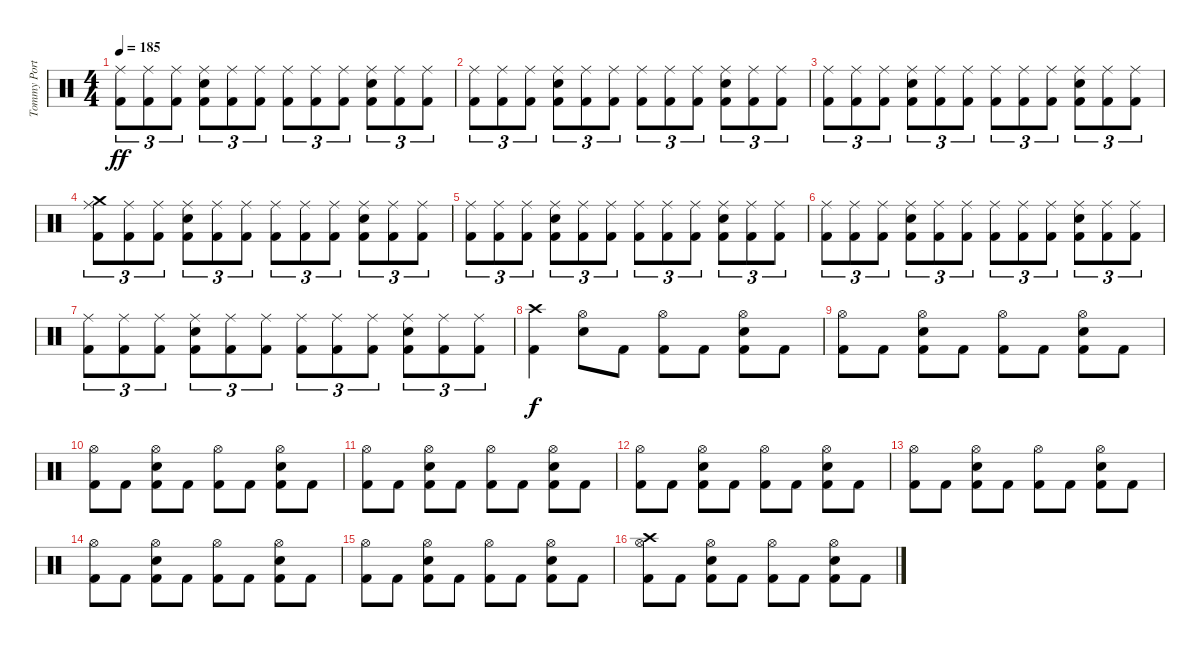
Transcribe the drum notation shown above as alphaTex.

\track ("Tommy Portino" "Tommy Port") {instrument percussion}
\staff {score}
\articulation defaults
\ts (4 4)
\tempo 185
\clef neutral
\ks c
("Ride (middle)" "Kick (hit) 2").8{tu (3 2) dy ff} ("Ride (middle)" "Kick (hit) 2").8{tu (3 2)} ("Ride (middle)" "Kick (hit) 2").8{tu (3 2)} ("Ride (middle)" "Snare (hit) 2" "Kick (hit) 2").8{tu (3 2)} ("Ride (middle)" "Kick (hit) 2").8{tu (3 2)} ("Ride (middle)" "Kick (hit) 2").8{tu (3 2)} ("Ride (middle)" "Kick (hit) 2").8{tu (3 2)} ("Ride (middle)" "Kick (hit) 2").8{tu (3 2)} ("Ride (middle)" "Kick (hit) 2").8{tu (3 2)} ("Ride (middle)" "Snare (hit) 2" "Kick (hit) 2").8{tu (3 2)} ("Ride (middle)" "Kick (hit) 2").8{tu (3 2)} ("Ride (middle)" "Kick (hit) 2").8{tu (3 2)} |
("Ride (middle)" "Kick (hit) 2").8{tu (3 2)} ("Ride (middle)" "Kick (hit) 2").8{tu (3 2)} ("Ride (middle)" "Kick (hit) 2").8{tu (3 2)} ("Ride (middle)" "Snare (hit) 2" "Kick (hit) 2").8{tu (3 2)} ("Ride (middle)" "Kick (hit) 2").8{tu (3 2)} ("Ride (middle)" "Kick (hit) 2").8{tu (3 2)} ("Ride (middle)" "Kick (hit) 2").8{tu (3 2)} ("Ride (middle)" "Kick (hit) 2").8{tu (3 2)} ("Ride (middle)" "Kick (hit) 2").8{tu (3 2)} ("Ride (middle)" "Snare (hit) 2" "Kick (hit) 2").8{tu (3 2)} ("Ride (middle)" "Kick (hit) 2").8{tu (3 2)} ("Ride (middle)" "Kick (hit) 2").8{tu (3 2)} |
("Ride (middle)" "Kick (hit) 2").8{tu (3 2)} ("Ride (middle)" "Kick (hit) 2").8{tu (3 2)} ("Ride (middle)" "Kick (hit) 2").8{tu (3 2)} ("Ride (middle)" "Snare (hit) 2" "Kick (hit) 2").8{tu (3 2)} ("Ride (middle)" "Kick (hit) 2").8{tu (3 2)} ("Ride (middle)" "Kick (hit) 2").8{tu (3 2)} ("Ride (middle)" "Kick (hit) 2").8{tu (3 2)} ("Ride (middle)" "Kick (hit) 2").8{tu (3 2)} ("Ride (middle)" "Kick (hit) 2").8{tu (3 2)} ("Ride (middle)" "Snare (hit) 2" "Kick (hit) 2").8{tu (3 2)} ("Ride (middle)" "Kick (hit) 2").8{tu (3 2)} ("Ride (middle)" "Kick (hit) 2").8{tu (3 2)} |
("Crash medium (hit)" "Ride (middle)" "Kick (hit) 2").8{tu (3 2)} ("Ride (middle)" "Kick (hit) 2").8{tu (3 2)} ("Ride (middle)" "Kick (hit) 2").8{tu (3 2)} ("Ride (middle)" "Snare (hit) 2" "Kick (hit) 2").8{tu (3 2)} ("Ride (middle)" "Kick (hit) 2").8{tu (3 2)} ("Ride (middle)" "Kick (hit) 2").8{tu (3 2)} ("Ride (middle)" "Kick (hit) 2").8{tu (3 2)} ("Ride (middle)" "Kick (hit) 2").8{tu (3 2)} ("Ride (middle)" "Kick (hit) 2").8{tu (3 2)} ("Ride (middle)" "Snare (hit) 2" "Kick (hit) 2").8{tu (3 2)} ("Ride (middle)" "Kick (hit) 2").8{tu (3 2)} ("Ride (middle)" "Kick (hit) 2").8{tu (3 2)} |
("Ride (middle)" "Kick (hit) 2").8{tu (3 2)} ("Ride (middle)" "Kick (hit) 2").8{tu (3 2)} ("Ride (middle)" "Kick (hit) 2").8{tu (3 2)} ("Ride (middle)" "Snare (hit) 2" "Kick (hit) 2").8{tu (3 2)} ("Ride (middle)" "Kick (hit) 2").8{tu (3 2)} ("Ride (middle)" "Kick (hit) 2").8{tu (3 2)} ("Ride (middle)" "Kick (hit) 2").8{tu (3 2)} ("Ride (middle)" "Kick (hit) 2").8{tu (3 2)} ("Ride (middle)" "Kick (hit) 2").8{tu (3 2)} ("Ride (middle)" "Snare (hit) 2" "Kick (hit) 2").8{tu (3 2)} ("Ride (middle)" "Kick (hit) 2").8{tu (3 2)} ("Ride (middle)" "Kick (hit) 2").8{tu (3 2)} |
("Ride (middle)" "Kick (hit) 2").8{tu (3 2)} ("Ride (middle)" "Kick (hit) 2").8{tu (3 2)} ("Ride (middle)" "Kick (hit) 2").8{tu (3 2)} ("Ride (middle)" "Snare (hit) 2" "Kick (hit) 2").8{tu (3 2)} ("Ride (middle)" "Kick (hit) 2").8{tu (3 2)} ("Ride (middle)" "Kick (hit) 2").8{tu (3 2)} ("Ride (middle)" "Kick (hit) 2").8{tu (3 2)} ("Ride (middle)" "Kick (hit) 2").8{tu (3 2)} ("Ride (middle)" "Kick (hit) 2").8{tu (3 2)} ("Ride (middle)" "Snare (hit) 2" "Kick (hit) 2").8{tu (3 2)} ("Ride (middle)" "Kick (hit) 2").8{tu (3 2)} ("Ride (middle)" "Kick (hit) 2").8{tu (3 2)} |
("Ride (middle)" "Kick (hit) 2").8{tu (3 2)} ("Ride (middle)" "Kick (hit) 2").8{tu (3 2)} ("Ride (middle)" "Kick (hit) 2").8{tu (3 2)} ("Ride (middle)" "Snare (hit) 2" "Kick (hit) 2").8{tu (3 2)} ("Ride (middle)" "Kick (hit) 2").8{tu (3 2)} ("Ride (middle)" "Kick (hit) 2").8{tu (3 2)} ("Ride (middle)" "Kick (hit) 2").8{tu (3 2)} ("Ride (middle)" "Kick (hit) 2").8{tu (3 2)} ("Ride (middle)" "Kick (hit) 2").8{tu (3 2)} ("Ride (middle)" "Snare (hit) 2" "Kick (hit) 2").8{tu (3 2)} ("Ride (middle)" "Kick (hit) 2").8{tu (3 2)} ("Ride (middle)" "Kick (hit) 2").8{tu (3 2)} |
("Crash high (hit)" "Kick (hit) 2").4{dy f} ("Hi-Hat (open)" "Snare (hit) 2").8 "Kick (hit) 2".8 ("Hi-Hat (open)" "Kick (hit) 2").8 "Kick (hit) 2".8 ("Hi-Hat (open)" "Snare (hit) 2" "Kick (hit) 2").8 "Kick (hit) 2".8 |
("Hi-Hat (open)" "Kick (hit) 2").8 "Kick (hit) 2".8 ("Hi-Hat (open)" "Snare (hit) 2" "Kick (hit) 2").8 "Kick (hit) 2".8 ("Hi-Hat (open)" "Kick (hit) 2").8 "Kick (hit) 2".8 ("Hi-Hat (open)" "Snare (hit) 2" "Kick (hit) 2").8 "Kick (hit) 2".8 |
("Hi-Hat (open)" "Kick (hit) 2").8 "Kick (hit) 2".8 ("Hi-Hat (open)" "Snare (hit) 2" "Kick (hit) 2").8 "Kick (hit) 2".8 ("Hi-Hat (open)" "Kick (hit) 2").8 "Kick (hit) 2".8 ("Hi-Hat (open)" "Snare (hit) 2" "Kick (hit) 2").8 "Kick (hit) 2".8 |
("Hi-Hat (open)" "Kick (hit) 2").8 "Kick (hit) 2".8 ("Hi-Hat (open)" "Snare (hit) 2" "Kick (hit) 2").8 "Kick (hit) 2".8 ("Hi-Hat (open)" "Kick (hit) 2").8 "Kick (hit) 2".8 ("Hi-Hat (open)" "Snare (hit) 2" "Kick (hit) 2").8 "Kick (hit) 2".8 |
("Hi-Hat (open)" "Kick (hit) 2").8 "Kick (hit) 2".8 ("Hi-Hat (open)" "Snare (hit) 2" "Kick (hit) 2").8 "Kick (hit) 2".8 ("Hi-Hat (open)" "Kick (hit) 2").8 "Kick (hit) 2".8 ("Hi-Hat (open)" "Snare (hit) 2" "Kick (hit) 2").8 "Kick (hit) 2".8 |
("Hi-Hat (open)" "Kick (hit) 2").8 "Kick (hit) 2".8 ("Hi-Hat (open)" "Snare (hit) 2" "Kick (hit) 2").8 "Kick (hit) 2".8 ("Hi-Hat (open)" "Kick (hit) 2").8 "Kick (hit) 2".8 ("Hi-Hat (open)" "Snare (hit) 2" "Kick (hit) 2").8 "Kick (hit) 2".8 |
("Hi-Hat (open)" "Kick (hit) 2").8 "Kick (hit) 2".8 ("Hi-Hat (open)" "Snare (hit) 2" "Kick (hit) 2").8 "Kick (hit) 2".8 ("Hi-Hat (open)" "Kick (hit) 2").8 "Kick (hit) 2".8 ("Hi-Hat (open)" "Snare (hit) 2" "Kick (hit) 2").8 "Kick (hit) 2".8 |
("Hi-Hat (open)" "Kick (hit) 2").8 "Kick (hit) 2".8 ("Hi-Hat (open)" "Snare (hit) 2" "Kick (hit) 2").8 "Kick (hit) 2".8 ("Hi-Hat (open)" "Kick (hit) 2").8 "Kick (hit) 2".8 ("Hi-Hat (open)" "Snare (hit) 2" "Kick (hit) 2").8 "Kick (hit) 2".8 |
("Crash high (hit)" "Hi-Hat (open)" "Kick (hit) 2").8 "Kick (hit) 2".8 ("Hi-Hat (open)" "Snare (hit) 2" "Kick (hit) 2").8 "Kick (hit) 2".8 ("Hi-Hat (open)" "Kick (hit) 2").8 "Kick (hit) 2".8 ("Hi-Hat (open)" "Snare (hit) 2" "Kick (hit) 2").8 "Kick (hit) 2".8
